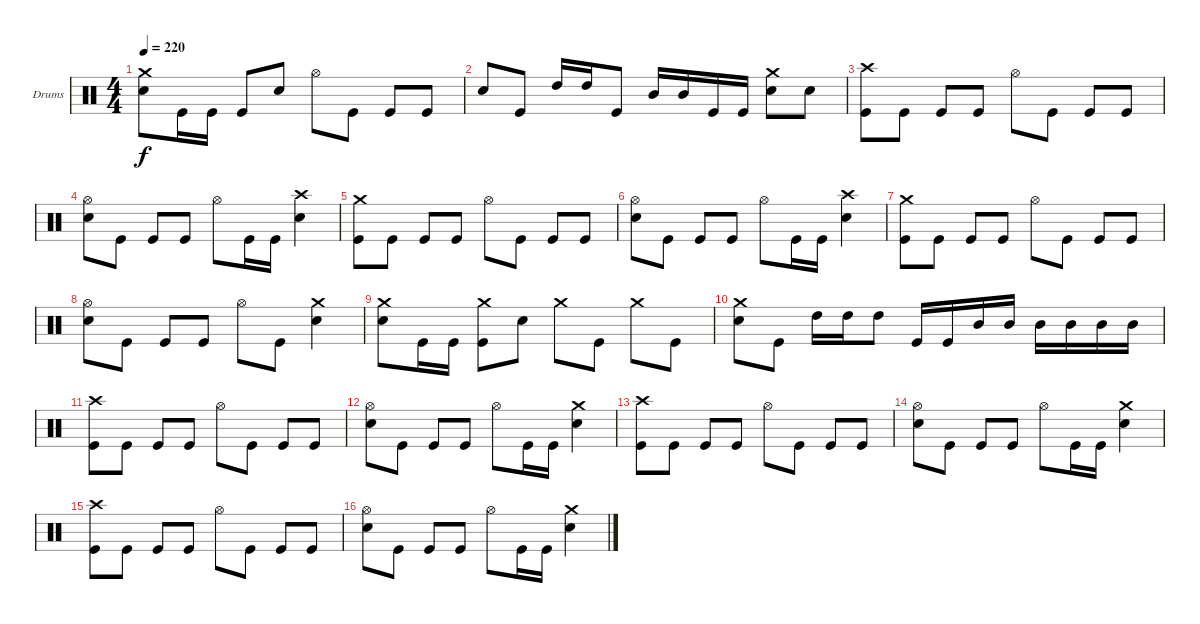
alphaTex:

\bracketExtendMode groupsimilarinstruments
\firstSystemTrackNameOrientation horizontal
\otherSystemsTrackNameOrientation horizontal
\track ("Drumkit" "Drums") {instrument percussion}
\staff {score}
\articulation defaults
\ts (4 4)
\tempo 220
\clef neutral
\scale
0.513889
\ks c
("Crash medium (hit)" "Snare (hit) 2").8{dy f} "Kick (hit)".16 "Kick (hit)".16 "Kick (hit)".8 "Snare (hit) 2".8 "Hi-Hat (open)".8 "Kick (hit)".8 "Kick (hit)".8 "Kick (hit)".8 |
\scale
0.559229 "Snare (hit) 2".8 "Kick (hit)".8 "High Tom (hit)".16 "High Tom (hit)".16 "Kick (hit)".8 "Mid Tom (hit)".16 "Mid Tom (hit)".16 "Kick (hit)".16 "Kick (hit)".16 ("Crash medium (hit)" "Snare (hit) 2").8 "Snare (hit) 2".8 |
\scale
0.440771 ("Crash high (hit)" "Kick (hit)").8 "Kick (hit)".8 "Kick (hit)".8 "Kick (hit)".8 "Hi-Hat (open)".8 "Kick (hit)".8 "Kick (hit)".8 "Kick (hit)".8 |
\scale
0.522388 ("Hi-Hat (open)" "Snare (hit) 2").8 "Kick (hit)".8 "Kick (hit)".8 "Kick (hit)".8 "Hi-Hat (open)".8 "Kick (hit)".16 "Kick (hit)".16 ("Crash high (hit)" "Snare (hit) 2").4 |
\scale
0.477612 ("Crash medium (hit)" "Kick (hit)").8 "Kick (hit)".8 "Kick (hit)".8 "Kick (hit)".8 "Hi-Hat (open)".8 "Kick (hit)".8 "Kick (hit)".8 "Kick (hit)".8 |
\scale
0.522388 ("Hi-Hat (open)" "Snare (hit) 2").8 "Kick (hit)".8 "Kick (hit)".8 "Kick (hit)".8 "Hi-Hat (open)".8 "Kick (hit)".16 "Kick (hit)".16 ("Crash high (hit)" "Snare (hit) 2").4 |
\scale
0.477612 ("Crash medium (hit)" "Kick (hit)").8 "Kick (hit)".8 "Kick (hit)".8 "Kick (hit)".8 "Hi-Hat (open)".8 "Kick (hit)".8 "Kick (hit)".8 "Kick (hit)".8 |
\scale
0.447761 ("Hi-Hat (open)" "Snare (hit) 2").8 "Kick (hit)".8 "Kick (hit)".8 "Kick (hit)".8 "Hi-Hat (open)".8 "Kick (hit)".8 ("Crash medium (hit)" "Snare (hit) 2").4 |
\scale
0.552239 ("Crash medium (hit)" "Snare (hit) 2").8 "Kick (hit)".16 "Kick (hit)".16 ("Crash medium (hit)" "Kick (hit)").8 "Snare (hit) 2".8 "Crash medium (hit)".8 "Kick (hit)".8 "Crash medium (hit)".8 "Kick (hit)".8 |
\scale
0.580052 ("Crash medium (hit)" "Snare (hit) 2").8 "Kick (hit)".8 "High Tom (hit)".16 "High Tom (hit)".16 "High Tom (hit)".8 "Kick (hit)".16 "Kick (hit)".16 "Mid Tom (hit)".16 "Mid Tom (hit)".16 "Mid Tom (hit)".16 "Mid Tom (hit)".16 "Mid Tom (hit)".16 "Mid Tom (hit)".16 |
\scale
0.419948 ("Crash high (hit)" "Kick (hit)").8 "Kick (hit)".8 "Kick (hit)".8 "Kick (hit)".8 "Hi-Hat (open)".8 "Kick (hit)".8 "Kick (hit)".8 "Kick (hit)".8 |
\scale
0.522388 ("Hi-Hat (open)" "Snare (hit) 2").8 "Kick (hit)".8 "Kick (hit)".8 "Kick (hit)".8 "Hi-Hat (open)".8 "Kick (hit)".16 "Kick (hit)".16 ("Crash medium (hit)" "Snare (hit) 2").4 |
\scale
0.477612 ("Crash high (hit)" "Kick (hit)").8 "Kick (hit)".8 "Kick (hit)".8 "Kick (hit)".8 "Hi-Hat (open)".8 "Kick (hit)".8 "Kick (hit)".8 "Kick (hit)".8 |
\scale
0.522388 ("Hi-Hat (open)" "Snare (hit) 2").8 "Kick (hit)".8 "Kick (hit)".8 "Kick (hit)".8 "Hi-Hat (open)".8 "Kick (hit)".16 "Kick (hit)".16 ("Crash medium (hit)" "Snare (hit) 2").4 |
\scale
0.477612 ("Crash high (hit)" "Kick (hit)").8 "Kick (hit)".8 "Kick (hit)".8 "Kick (hit)".8 "Hi-Hat (open)".8 "Kick (hit)".8 "Kick (hit)".8 "Kick (hit)".8 |
\scale
0.486111 ("Hi-Hat (open)" "Snare (hit) 2").8 "Kick (hit)".8 "Kick (hit)".8 "Kick (hit)".8 "Hi-Hat (open)".8 "Kick (hit)".16 "Kick (hit)".16 ("Crash medium (hit)" "Snare (hit) 2").4
